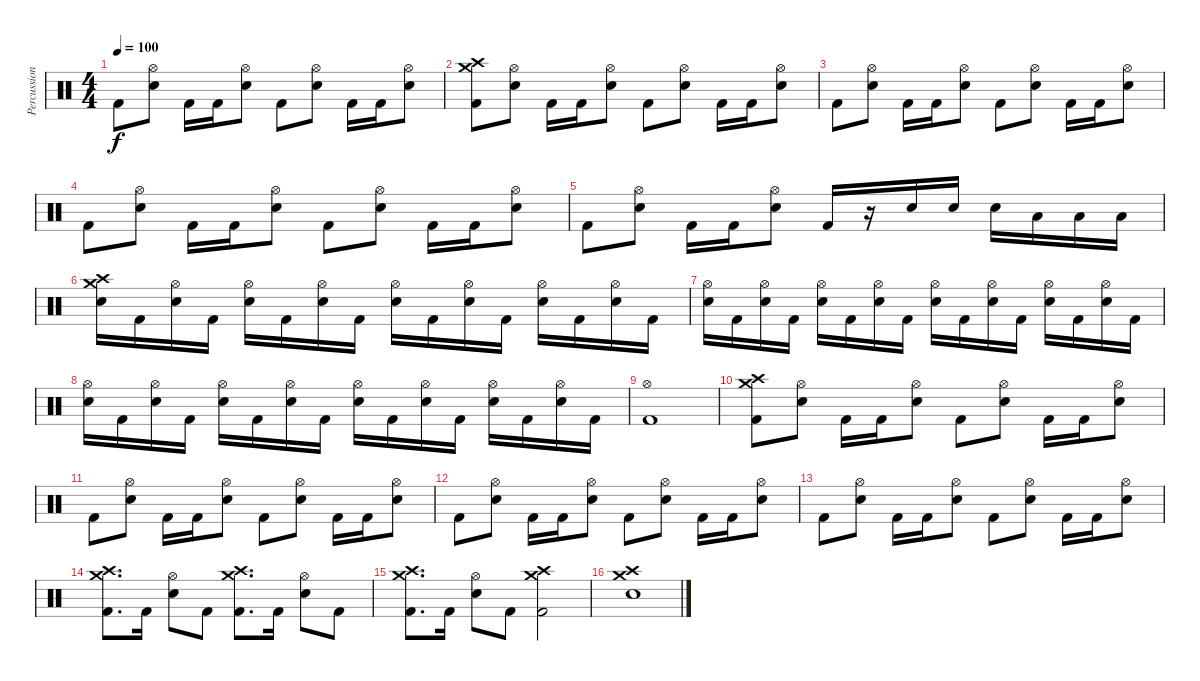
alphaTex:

\track ("Percussion" "Percussion") {instrument percussion}
\staff {score}
\articulation defaults
\ts (4 4)
\tempo 100
\clef neutral
\ks c "Kick (hit) 2".8{dy f}
("Hi-Hat (open)" "Electric Snare (hit)").8 "Kick (hit) 2".16 "Kick (hit) 2".16 ("Hi-Hat (open)" "Electric Snare (hit)").8 "Kick (hit) 2".8 ("Hi-Hat (open)" "Electric Snare (hit)").8 "Kick (hit) 2".16 "Kick (hit) 2".16 ("Hi-Hat (open)" "Electric Snare (hit)").8 |
("Crash high (hit)" "Crash medium (hit)" "Kick (hit) 2").8 ("Hi-Hat (open)" "Electric Snare (hit)").8 "Kick (hit) 2".16 "Kick (hit) 2".16 ("Hi-Hat (open)" "Electric Snare (hit)").8 "Kick (hit) 2".8 ("Hi-Hat (open)" "Electric Snare (hit)").8 "Kick (hit) 2".16 "Kick (hit) 2".16 ("Hi-Hat (open)" "Electric Snare (hit)").8 |
"Kick (hit) 2".8 ("Hi-Hat (open)" "Electric Snare (hit)").8 "Kick (hit) 2".16 "Kick (hit) 2".16 ("Hi-Hat (open)" "Electric Snare (hit)").8 "Kick (hit) 2".8 ("Hi-Hat (open)" "Electric Snare (hit)").8 "Kick (hit) 2".16 "Kick (hit) 2".16 ("Hi-Hat (open)" "Electric Snare (hit)").8 |
"Kick (hit) 2".8 ("Hi-Hat (open)" "Electric Snare (hit)").8 "Kick (hit) 2".16 "Kick (hit) 2".16 ("Hi-Hat (open)" "Electric Snare (hit)").8 "Kick (hit) 2".8 ("Hi-Hat (open)" "Electric Snare (hit)").8 "Kick (hit) 2".16 "Kick (hit) 2".16 ("Hi-Hat (open)" "Electric Snare (hit)").8 |
"Kick (hit) 2".8 ("Hi-Hat (open)" "Electric Snare (hit)").8 "Kick (hit) 2".16 "Kick (hit) 2".16 ("Hi-Hat (open)" "Electric Snare (hit)").8 "Kick (hit) 2".16 r.16 "Electric Snare (hit)".16 "Electric Snare (hit)".16 "Electric Snare (hit)".16 "Low Tom (hit)".16 "Low Tom (hit)".16 "Low Tom (hit)".16 |
("Crash medium (hit)" "Crash high (hit)" "Electric Snare (hit)").16 "Kick (hit) 2".16 ("Hi-Hat (open)" "Electric Snare (hit)").16 "Kick (hit) 2".16 ("Hi-Hat (open)" "Electric Snare (hit)").16 "Kick (hit) 2".16 ("Hi-Hat (open)" "Electric Snare (hit)").16 "Kick (hit) 2".16 ("Hi-Hat (open)" "Electric Snare (hit)").16 "Kick (hit) 2".16 ("Hi-Hat (open)" "Electric Snare (hit)").16 "Kick (hit) 2".16 ("Hi-Hat (open)" "Electric Snare (hit)").16 "Kick (hit) 2".16 ("Hi-Hat (open)" "Electric Snare (hit)").16 "Kick (hit) 2".16 |
("Hi-Hat (open)" "Electric Snare (hit)").16 "Kick (hit) 2".16 ("Hi-Hat (open)" "Electric Snare (hit)").16 "Kick (hit) 2".16 ("Hi-Hat (open)" "Electric Snare (hit)").16 "Kick (hit) 2".16 ("Hi-Hat (open)" "Electric Snare (hit)").16 "Kick (hit) 2".16 ("Hi-Hat (open)" "Electric Snare (hit)").16 "Kick (hit) 2".16 ("Hi-Hat (open)" "Electric Snare (hit)").16 "Kick (hit) 2".16 ("Hi-Hat (open)" "Electric Snare (hit)").16 "Kick (hit) 2".16 ("Hi-Hat (open)" "Electric Snare (hit)").16 "Kick (hit) 2".16 |
("Hi-Hat (open)" "Electric Snare (hit)").16 "Kick (hit) 2".16 ("Hi-Hat (open)" "Electric Snare (hit)").16 "Kick (hit) 2".16 ("Hi-Hat (open)" "Electric Snare (hit)").16 "Kick (hit) 2".16 ("Hi-Hat (open)" "Electric Snare (hit)").16 "Kick (hit) 2".16 ("Hi-Hat (open)" "Electric Snare (hit)").16 "Kick (hit) 2".16 ("Hi-Hat (open)" "Electric Snare (hit)").16 "Kick (hit) 2".16 ("Hi-Hat (open)" "Electric Snare (hit)").16 "Kick (hit) 2".16 ("Hi-Hat (open)" "Electric Snare (hit)").16 "Kick (hit) 2".16 |
("Hi-Hat (open)" "Kick (hit) 2").1 |
("Crash high (hit)" "Crash medium (hit)" "Kick (hit) 2").8 ("Hi-Hat (open)" "Electric Snare (hit)").8 "Kick (hit) 2".16 "Kick (hit) 2".16 ("Hi-Hat (open)" "Electric Snare (hit)").8 "Kick (hit) 2".8 ("Hi-Hat (open)" "Electric Snare (hit)").8 "Kick (hit) 2".16 "Kick (hit) 2".16 ("Hi-Hat (open)" "Electric Snare (hit)").8 |
"Kick (hit) 2".8 ("Hi-Hat (open)" "Electric Snare (hit)").8 "Kick (hit) 2".16 "Kick (hit) 2".16 ("Hi-Hat (open)" "Electric Snare (hit)").8 "Kick (hit) 2".8 ("Hi-Hat (open)" "Electric Snare (hit)").8 "Kick (hit) 2".16 "Kick (hit) 2".16 ("Hi-Hat (open)" "Electric Snare (hit)").8 |
"Kick (hit) 2".8 ("Hi-Hat (open)" "Electric Snare (hit)").8 "Kick (hit) 2".16 "Kick (hit) 2".16 ("Hi-Hat (open)" "Electric Snare (hit)").8 "Kick (hit) 2".8 ("Hi-Hat (open)" "Electric Snare (hit)").8 "Kick (hit) 2".16 "Kick (hit) 2".16 ("Hi-Hat (open)" "Electric Snare (hit)").8 |
"Kick (hit) 2".8 ("Hi-Hat (open)" "Electric Snare (hit)").8 "Kick (hit) 2".16 "Kick (hit) 2".16 ("Hi-Hat (open)" "Electric Snare (hit)").8 "Kick (hit) 2".8 ("Hi-Hat (open)" "Electric Snare (hit)").8 "Kick (hit) 2".16 "Kick (hit) 2".16 ("Hi-Hat (open)" "Electric Snare (hit)").8 |
("Crash high (hit)" "Crash medium (hit)" "Kick (hit) 2").8{d} "Kick (hit) 2".16 ("Hi-Hat (open)" "Electric Snare (hit)").8 "Kick (hit) 2".8 ("Crash high (hit)" "Crash medium (hit)" "Kick (hit) 2").8{d} "Kick (hit) 2".16 ("Hi-Hat (open)" "Electric Snare (hit)").8 "Kick (hit) 2".8 |
("Crash high (hit)" "Crash medium (hit)" "Kick (hit) 2").8{d} "Kick (hit) 2".16 ("Hi-Hat (open)" "Electric Snare (hit)").8 "Kick (hit) 2".8 ("Crash high (hit)" "Crash medium (hit)" "Kick (hit) 2").2 |
("Crash high (hit)" "Crash medium (hit)" "Electric Snare (hit)").1
